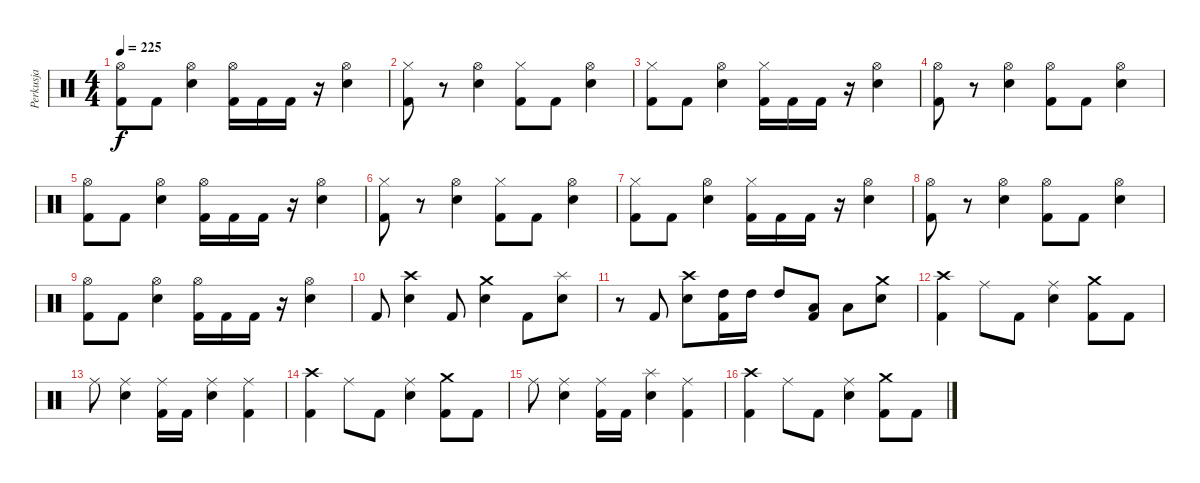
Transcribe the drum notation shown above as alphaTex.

\track ("Perkusja" "Perkusja") {instrument percussion}
\staff {score}
\articulation defaults
\ts (4 4)
\tempo 225
\clef neutral
\ks c
("Hi-Hat (open)" "Kick (hit) 2").8{dy f} "Kick (hit) 2".8 ("Hi-Hat (open)" "Snare (hit) 2").4 ("Hi-Hat (open)" "Kick (hit) 2").16 "Kick (hit) 2".16 "Kick (hit) 2".16 r.16 ("Hi-Hat (open)" "Snare (hit) 2").4 |
("Hi-Hat (closed)" "Kick (hit) 2").8 r.8 ("Hi-Hat (open)" "Snare (hit) 2").4 ("Hi-Hat (closed)" "Kick (hit) 2").8 "Kick (hit) 2".8 ("Hi-Hat (open)" "Snare (hit) 2").4 |
("Hi-Hat (closed)" "Kick (hit) 2").8 "Kick (hit) 2".8 ("Hi-Hat (open)" "Snare (hit) 2").4 ("Hi-Hat (closed)" "Kick (hit) 2").16 "Kick (hit) 2".16 "Kick (hit) 2".16 r.16 ("Hi-Hat (open)" "Snare (hit) 2").4 |
("Hi-Hat (open)" "Kick (hit) 2").8 r.8 ("Hi-Hat (open)" "Snare (hit) 2").4 ("Hi-Hat (open)" "Kick (hit) 2").8 "Kick (hit) 2".8 ("Hi-Hat (open)" "Snare (hit) 2").4 |
("Hi-Hat (open)" "Kick (hit) 2").8 "Kick (hit) 2".8 ("Hi-Hat (open)" "Snare (hit) 2").4 ("Hi-Hat (open)" "Kick (hit) 2").16 "Kick (hit) 2".16 "Kick (hit) 2".16 r.16 ("Hi-Hat (open)" "Snare (hit) 2").4 |
("Hi-Hat (closed)" "Kick (hit) 2").8 r.8 ("Hi-Hat (open)" "Snare (hit) 2").4 ("Hi-Hat (closed)" "Kick (hit) 2").8 "Kick (hit) 2".8 ("Hi-Hat (open)" "Snare (hit) 2").4 |
("Hi-Hat (closed)" "Kick (hit) 2").8 "Kick (hit) 2".8 ("Hi-Hat (open)" "Snare (hit) 2").4 ("Hi-Hat (closed)" "Kick (hit) 2").16 "Kick (hit) 2".16 "Kick (hit) 2".16 r.16 ("Hi-Hat (open)" "Snare (hit) 2").4 |
("Hi-Hat (open)" "Kick (hit) 2").8 r.8 ("Hi-Hat (open)" "Snare (hit) 2").4 ("Hi-Hat (open)" "Kick (hit) 2").8 "Kick (hit) 2".8 ("Hi-Hat (open)" "Snare (hit) 2").4 |
("Hi-Hat (open)" "Kick (hit) 2").8 "Kick (hit) 2".8 ("Hi-Hat (open)" "Snare (hit) 2").4 ("Hi-Hat (open)" "Kick (hit) 2").16 "Kick (hit) 2".16 "Kick (hit) 2".16 r.16 ("Hi-Hat (open)" "Snare (hit) 2").4 |
"Kick (hit) 2".8 ("Crash high (hit)" "Snare (hit) 2").4 "Kick (hit) 2".8 ("Crash medium (hit)" "Snare (hit) 2").4 "Kick (hit) 2".8 ("Splash (hit)" "Snare (hit) 2").8 |
r.8 "Kick (hit) 2".8 ("Crash high (hit)" "Snare (hit) 2").8 ("High Tom (hit)" "Kick (hit) 2").16 "High Tom (hit)".16 "High Tom (hit)".8 ("Low Tom (hit)" "Kick (hit) 2").8 "Low Tom (hit)".8 ("Crash medium (hit)" "Snare (hit) 2").8 |
("Crash high (hit)" "Kick (hit) 2").4 "Ride (middle)".8 "Kick (hit) 2".8 ("Ride (middle)" "Snare (hit) 2").4 ("Crash medium (hit)" "Kick (hit) 2").8 "Kick (hit) 2".8 |
"Ride (middle)".8 ("Ride (middle)" "Snare (hit) 2").4 ("Ride (middle)" "Kick (hit) 2").16 "Kick (hit) 2".16 ("Ride (middle)" "Snare (hit) 2").4 ("Ride (middle)" "Kick (hit) 2").4 |
("Crash high (hit)" "Kick (hit) 2").4 "Ride (middle)".8 "Kick (hit) 2".8 ("Ride (middle)" "Snare (hit) 2").4 ("Crash medium (hit)" "Kick (hit) 2").8 "Kick (hit) 2".8 |
"Ride (middle)".8 ("Ride (middle)" "Snare (hit) 2").4 ("Ride (middle)" "Kick (hit) 2").16 "Kick (hit) 2".16 ("Splash (hit)" "Snare (hit) 2").4 ("Ride (middle)" "Kick (hit) 2").4 |
("Crash high (hit)" "Kick (hit) 2").4 "Ride (middle)".8 "Kick (hit) 2".8 ("Ride (middle)" "Snare (hit) 2").4 ("Crash medium (hit)" "Kick (hit) 2").8 "Kick (hit) 2".8
